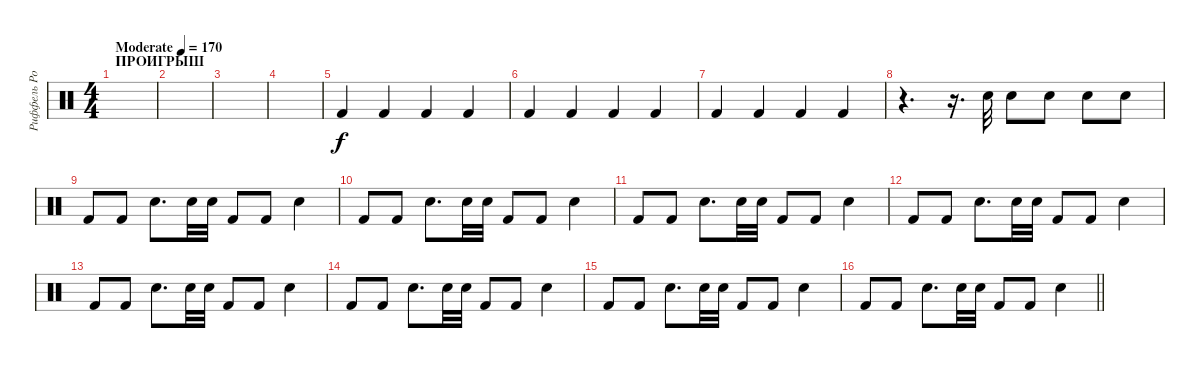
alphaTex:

\track ("Риффель Роман (главные)" "Риффель Ро") {instrument percussion}
\staff {score}
\articulation defaults
\ts (4 4)
\section ("" "ПРОИГРЫШ ")
\tempo (170 "Moderate")
\clef neutral
\ks c
|
|
|
|
"Kick (hit) 2".4 "Kick (hit) 2".4 "Kick (hit) 2".4 "Kick (hit) 2".4 |
"Kick (hit) 2".4 "Kick (hit) 2".4 "Kick (hit) 2".4 "Kick (hit) 2".4 |
"Kick (hit) 2".4 "Kick (hit) 2".4 "Kick (hit) 2".4 "Kick (hit) 2".4 |
r.4{d} r.16{d} "Electric Snare (hit)".32 "Electric Snare (hit)".8 "Electric Snare (hit)".8 "Electric Snare (hit)".8 "Electric Snare (hit)".8 |
"Kick (hit) 2".8 "Kick (hit) 2".8 "Electric Snare (hit)".8{d} "Electric Snare (hit)".32 "Electric Snare (hit)".32 "Kick (hit) 2".8 "Kick (hit) 2".8 "Electric Snare (hit)".4 |
"Kick (hit) 2".8 "Kick (hit) 2".8 "Electric Snare (hit)".8{d} "Electric Snare (hit)".32 "Electric Snare (hit)".32 "Kick (hit) 2".8 "Kick (hit) 2".8 "Electric Snare (hit)".4 |
"Kick (hit) 2".8 "Kick (hit) 2".8 "Electric Snare (hit)".8{d} "Electric Snare (hit)".32 "Electric Snare (hit)".32 "Kick (hit) 2".8 "Kick (hit) 2".8 "Electric Snare (hit)".4 |
"Kick (hit) 2".8 "Kick (hit) 2".8 "Electric Snare (hit)".8{d} "Electric Snare (hit)".32 "Electric Snare (hit)".32 "Kick (hit) 2".8 "Kick (hit) 2".8 "Electric Snare (hit)".4 |
"Kick (hit) 2".8 "Kick (hit) 2".8 "Electric Snare (hit)".8{d} "Electric Snare (hit)".32 "Electric Snare (hit)".32 "Kick (hit) 2".8 "Kick (hit) 2".8 "Electric Snare (hit)".4 |
"Kick (hit) 2".8 "Kick (hit) 2".8 "Electric Snare (hit)".8{d} "Electric Snare (hit)".32 "Electric Snare (hit)".32 "Kick (hit) 2".8 "Kick (hit) 2".8 "Electric Snare (hit)".4 |
"Kick (hit) 2".8 "Kick (hit) 2".8 "Electric Snare (hit)".8{d} "Electric Snare (hit)".32 "Electric Snare (hit)".32 "Kick (hit) 2".8 "Kick (hit) 2".8 "Electric Snare (hit)".4 |
\barLineRight lightlight "Kick (hit) 2".8 "Kick (hit) 2".8 "Electric Snare (hit)".8{d} "Electric Snare (hit)".32 "Electric Snare (hit)".32 "Kick (hit) 2".8 "Kick (hit) 2".8 "Electric Snare (hit)".4
